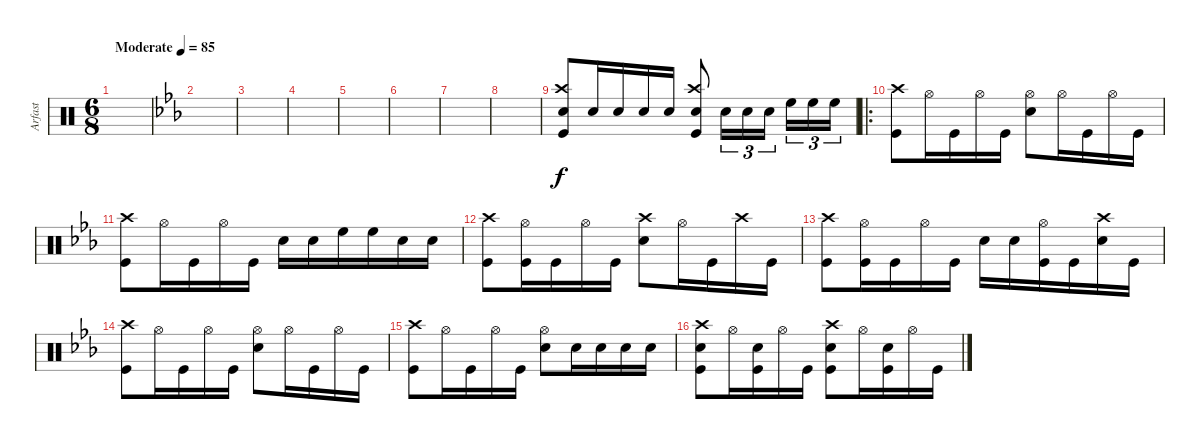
\track ("Arfast" "Arfast") {instrument percussion}
\staff {score}
\articulation defaults
\ts (6 8)
\tempo (85 "Moderate")
\clef neutral
\ks c
|
\ks cminor
|
|
|
|
|
|
|
("Kick (hit)" "Crash high (hit)" "Snare (hit) 2").8 "Snare (hit) 2".16 "Snare (hit) 2".16 "Snare (hit) 2".16 "Snare (hit) 2".16 ("Kick (hit)" "Crash high (hit)" "Snare (hit) 2").8 "Snare (hit) 2".16{tu (3 2)} "Snare (hit) 2".16{tu (3 2)} "Snare (hit) 2".16{tu (3 2) beam splitsecondary} "High Floor Tom (hit)".16{tu (3 2)} "High Floor Tom (hit)".16{tu (3 2)} "High Floor Tom (hit)".16{tu (3 2)} |
\ro
("Kick (hit)" "Crash high (hit)").8 "Hi-Hat (open)".16 "Kick (hit)".16 "Hi-Hat (open)".16 "Kick (hit)".16 ("Snare (hit) 2" "Hi-Hat (open)").8 "Hi-Hat (open)".16 "Kick (hit)".16 "Hi-Hat (open)".16 "Kick (hit)".16 |
("Kick (hit)" "Crash high (hit)").8 "Hi-Hat (open)".16 "Kick (hit)".16 "Hi-Hat (open)".16 "Kick (hit)".16 "Snare (hit) 2".16 "Snare (hit) 2".16 "High Floor Tom (hit)".16 "High Floor Tom (hit)".16 "Snare (hit) 2".16 "Snare (hit) 2".16 |
("Kick (hit)" "Crash high (hit)").8 ("Kick (hit)" "Hi-Hat (open)").16 "Kick (hit)".16 "Hi-Hat (open)".16 "Kick (hit)".16 ("Snare (hit) 2" "Crash high (hit)").8 "Hi-Hat (open)".16 "Kick (hit)".16 "Crash high (hit)".16 "Kick (hit)".16 |
("Kick (hit)" "Crash high (hit)").8 ("Kick (hit)" "Hi-Hat (open)").16 "Kick (hit)".16 "Hi-Hat (open)".16 "Kick (hit)".16 "Snare (hit) 2".16 "Snare (hit) 2".16 ("Hi-Hat (open)" "Kick (hit)").16 "Kick (hit)".16 ("Crash high (hit)" "Snare (hit) 2").16 "Kick (hit)".16 |
("Kick (hit)" "Crash high (hit)").8 "Hi-Hat (open)".16 "Kick (hit)".16 "Hi-Hat (open)".16 "Kick (hit)".16 ("Snare (hit) 2" "Hi-Hat (open)").8 "Hi-Hat (open)".16 "Kick (hit)".16 "Hi-Hat (open)".16 "Kick (hit)".16 |
("Kick (hit)" "Crash high (hit)").8 "Hi-Hat (open)".16 "Kick (hit)".16 "Hi-Hat (open)".16 "Kick (hit)".16 ("Snare (hit) 2" "Hi-Hat (open)").8 "Snare (hit) 2".16 "Snare (hit) 2".16 "Snare (hit) 2".16 "Snare (hit) 2".16 |
("Kick (hit)" "Crash high (hit)" "Snare (hit) 2").8 "Hi-Hat (open)".16 ("Kick (hit)" "Snare (hit) 2").16 "Hi-Hat (open)".16 "Kick (hit)".16 ("Kick (hit)" "Crash high (hit)" "Snare (hit) 2").8 "Hi-Hat (open)".16 ("Kick (hit)" "Snare (hit) 2").16 "Hi-Hat (open)".16 "Kick (hit)".16
